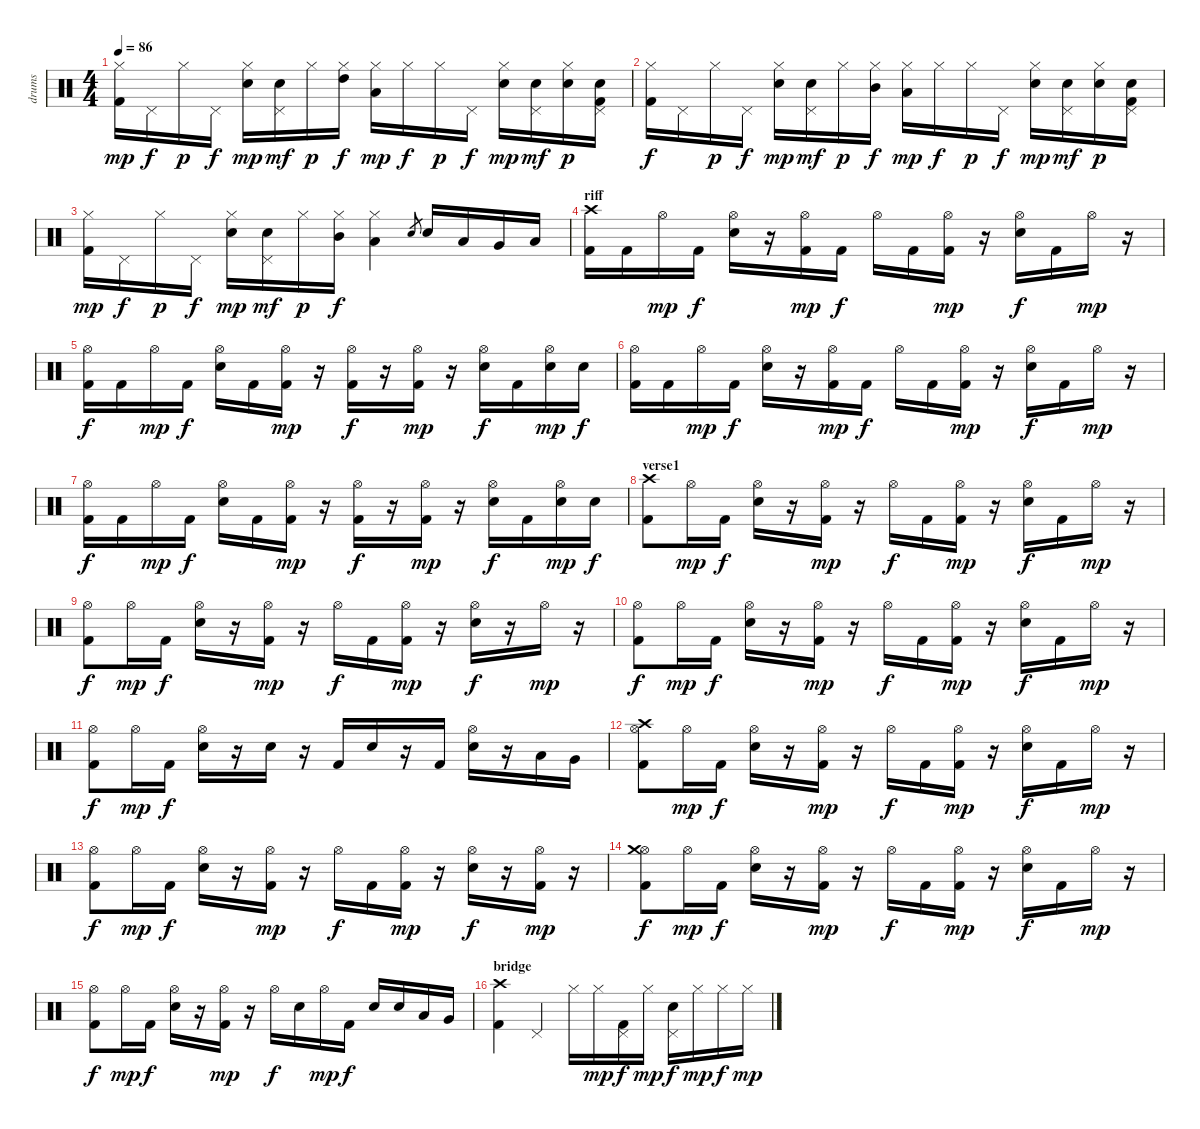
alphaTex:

\track ("drums" "drums") {instrument percussion}
\staff {score}
\articulation defaults
\ts (4 4)
\tempo 86
\clef neutral
\ks c
("Kick (hit) 2" "Hi-Hat (closed)").16{dy mp} "Pedal Hi-Hat (hit)".16{dy f} "Hi-Hat (closed)".16{dy p} "Pedal Hi-Hat (hit)".16{dy f} ("Snare (hit) 2" "Hi-Hat (closed)").16{dy mp} ("Snare (hit) 2" "Pedal Hi-Hat (hit)").16{dy mf} "Hi-Hat (closed)".16{dy p} ("High Tom (hit)" "Hi-Hat (closed)").16{dy f} ("Low Tom (hit)" "Hi-Hat (closed)").16{dy mp} "Hi-Hat (closed)".16{dy f} "Hi-Hat (closed)".16{dy p} "Pedal Hi-Hat (hit)".16{dy f} ("Snare (hit) 2" "Hi-Hat (closed)").16{dy mp} ("Snare (hit) 2" "Pedal Hi-Hat (hit)").16{dy mf} ("Snare (hit) 2" "Hi-Hat (closed)").16{dy p} ("Kick (hit) 2" "Snare (hit) 2" "Pedal Hi-Hat (hit)").16 |
("Kick (hit) 2" "Hi-Hat (closed)").16{dy f} "Pedal Hi-Hat (hit)".16 "Hi-Hat (closed)".16{dy p} "Pedal Hi-Hat (hit)".16{dy f} ("Snare (hit) 2" "Hi-Hat (closed)").16{dy mp} ("Snare (hit) 2" "Pedal Hi-Hat (hit)").16{dy mf} "Hi-Hat (closed)".16{dy p} ("Mid Tom (hit)" "Hi-Hat (closed)").16{dy f} ("Low Tom (hit)" "Hi-Hat (closed)").16{dy mp} "Hi-Hat (closed)".16{dy f} "Hi-Hat (closed)".16{dy p} "Pedal Hi-Hat (hit)".16{dy f} ("Snare (hit) 2" "Hi-Hat (closed)").16{dy mp} ("Snare (hit) 2" "Pedal Hi-Hat (hit)").16{dy mf} ("Snare (hit) 2" "Hi-Hat (closed)").16{dy p} ("Kick (hit) 2" "Snare (hit) 2" "Pedal Hi-Hat (hit)").16 |
("Kick (hit) 2" "Hi-Hat (closed)").16{dy mp} "Pedal Hi-Hat (hit)".16{dy f} "Hi-Hat (closed)".16{dy p} "Pedal Hi-Hat (hit)".16{dy f} ("Snare (hit) 2" "Hi-Hat (closed)").16{dy mp} ("Snare (hit) 2" "Pedal Hi-Hat (hit)").16{dy mf} "Hi-Hat (closed)".16{dy p} ("Mid Tom (hit)" "Hi-Hat (closed)").16{dy f} ("Low Tom (hit)" "Hi-Hat (closed)").4 "Electric Snare (hit)".8{gr} "Electric Snare (hit)".16 "Low Tom (hit)".16 "Very Low Tom (hit)".16 "Low Floor Tom (hit)".16 |
\section ("" "riff")
("Kick (hit) 2" "Crash high (hit)").16 "Kick (hit) 2".16 "Hi-Hat (open)".16{dy mp} "Kick (hit) 2".16{dy f} ("Electric Snare (hit)" "Hi-Hat (open)").16 r.16 ("Kick (hit) 2" "Hi-Hat (open)").16{dy mp} "Kick (hit) 2".16{dy f} "Hi-Hat (open)".16 "Kick (hit) 2".16 ("Kick (hit) 2" "Hi-Hat (open)").16{dy mp} r.16 ("Electric Snare (hit)" "Hi-Hat (open)").16{dy f} "Kick (hit) 2".16 "Hi-Hat (open)".16{dy mp} r.16 |
("Kick (hit) 2" "Hi-Hat (open)").16{dy f} "Kick (hit) 2".16 "Hi-Hat (open)".16{dy mp} "Kick (hit) 2".16{dy f} ("Electric Snare (hit)" "Hi-Hat (open)").16 "Kick (hit) 2".16 ("Kick (hit) 2" "Hi-Hat (open)").16{dy mp} r.16 ("Kick (hit) 2" "Hi-Hat (open)").16{dy f} r.16 ("Kick (hit) 2" "Hi-Hat (open)").16{dy mp} r.16 ("Electric Snare (hit)" "Hi-Hat (open)").16{dy f} "Kick (hit) 2".16 ("Electric Snare (hit)" "Hi-Hat (open)").16{dy mp} "Electric Snare (hit)".16{dy f} |
("Kick (hit) 2" "Hi-Hat (open)").16 "Kick (hit) 2".16 "Hi-Hat (open)".16{dy mp} "Kick (hit) 2".16{dy f} ("Electric Snare (hit)" "Hi-Hat (open)").16 r.16 ("Kick (hit) 2" "Hi-Hat (open)").16{dy mp} "Kick (hit) 2".16{dy f} "Hi-Hat (open)".16 "Kick (hit) 2".16 ("Kick (hit) 2" "Hi-Hat (open)").16{dy mp} r.16 ("Electric Snare (hit)" "Hi-Hat (open)").16{dy f} "Kick (hit) 2".16 "Hi-Hat (open)".16{dy mp} r.16 |
("Kick (hit) 2" "Hi-Hat (open)").16{dy f} "Kick (hit) 2".16 "Hi-Hat (open)".16{dy mp} "Kick (hit) 2".16{dy f} ("Electric Snare (hit)" "Hi-Hat (open)").16 "Kick (hit) 2".16 ("Kick (hit) 2" "Hi-Hat (open)").16{dy mp} r.16 ("Kick (hit) 2" "Hi-Hat (open)").16{dy f} r.16 ("Kick (hit) 2" "Hi-Hat (open)").16{dy mp} r.16 ("Electric Snare (hit)" "Hi-Hat (open)").16{dy f} "Kick (hit) 2".16 ("Electric Snare (hit)" "Hi-Hat (open)").16{dy mp} "Electric Snare (hit)".16{dy f} |
\section ("" "verse1")
("Kick (hit) 2" "Crash high (hit)").8 "Hi-Hat (open)".16{dy mp} "Kick (hit) 2".16{dy f} ("Electric Snare (hit)" "Hi-Hat (open)").16 r.16 ("Kick (hit) 2" "Hi-Hat (open)").16{dy mp} r.16 "Hi-Hat (open)".16{dy f} "Kick (hit) 2".16 ("Kick (hit) 2" "Hi-Hat (open)").16{dy mp} r.16 ("Electric Snare (hit)" "Hi-Hat (open)").16{dy f} "Kick (hit) 2".16 "Hi-Hat (open)".16{dy mp} r.16 |
("Kick (hit) 2" "Hi-Hat (open)").8{dy f} "Hi-Hat (open)".16{dy mp} "Kick (hit) 2".16{dy f} ("Electric Snare (hit)" "Hi-Hat (open)").16 r.16 ("Kick (hit) 2" "Hi-Hat (open)").16{dy mp} r.16 "Hi-Hat (open)".16{dy f} "Kick (hit) 2".16 ("Kick (hit) 2" "Hi-Hat (open)").16{dy mp} r.16 ("Electric Snare (hit)" "Hi-Hat (open)").16{dy f} r.16 "Hi-Hat (open)".16{dy mp} r.16 |
("Kick (hit) 2" "Hi-Hat (open)").8{dy f} "Hi-Hat (open)".16{dy mp} "Kick (hit) 2".16{dy f} ("Electric Snare (hit)" "Hi-Hat (open)").16 r.16 ("Kick (hit) 2" "Hi-Hat (open)").16{dy mp} r.16 "Hi-Hat (open)".16{dy f} "Kick (hit) 2".16 ("Kick (hit) 2" "Hi-Hat (open)").16{dy mp} r.16 ("Electric Snare (hit)" "Hi-Hat (open)").16{dy f} "Kick (hit) 2".16 "Hi-Hat (open)".16{dy mp} r.16 |
("Kick (hit) 2" "Hi-Hat (open)").8{dy f} "Hi-Hat (open)".16{dy mp} "Kick (hit) 2".16{dy f} ("Electric Snare (hit)" "Hi-Hat (open)").16 r.16 "Electric Snare (hit)".16 r.16 "Kick (hit) 2".16 "Electric Snare (hit)".16 r.16 "Kick (hit) 2".16 ("Electric Snare (hit)" "Hi-Hat (open)").16 r.16 "Low Tom (hit)".16 "Very Low Tom (hit)".16 |
("Kick (hit) 2" "Hi-Hat (open)" "Crash high (hit)").8 "Hi-Hat (open)".16{dy mp} "Kick (hit) 2".16{dy f} ("Electric Snare (hit)" "Hi-Hat (open)").16 r.16 ("Kick (hit) 2" "Hi-Hat (open)").16{dy mp} r.16 "Hi-Hat (open)".16{dy f} "Kick (hit) 2".16 ("Kick (hit) 2" "Hi-Hat (open)").16{dy mp} r.16 ("Electric Snare (hit)" "Hi-Hat (open)").16{dy f} "Kick (hit) 2".16 "Hi-Hat (open)".16{dy mp} r.16 |
("Kick (hit) 2" "Hi-Hat (open)").8{dy f} "Hi-Hat (open)".16{dy mp} "Kick (hit) 2".16{dy f} ("Electric Snare (hit)" "Hi-Hat (open)").16 r.16 ("Kick (hit) 2" "Hi-Hat (open)").16{dy mp} r.16 "Hi-Hat (open)".16{dy f} "Kick (hit) 2".16 ("Kick (hit) 2" "Hi-Hat (open)").16{dy mp} r.16 ("Electric Snare (hit)" "Hi-Hat (open)").16{dy f} r.16 ("Kick (hit) 2" "Hi-Hat (open)").16{dy mp} r.16 |
("Kick (hit) 2" "Hi-Hat (open)" "Crash medium (hit)").8{dy f} "Hi-Hat (open)".16{dy mp} "Kick (hit) 2".16{dy f} ("Electric Snare (hit)" "Hi-Hat (open)").16 r.16 ("Kick (hit) 2" "Hi-Hat (open)").16{dy mp} r.16 "Hi-Hat (open)".16{dy f} "Kick (hit) 2".16 ("Kick (hit) 2" "Hi-Hat (open)").16{dy mp} r.16 ("Electric Snare (hit)" "Hi-Hat (open)").16{dy f} "Kick (hit) 2".16 "Hi-Hat (open)".16{dy mp} r.16 |
("Kick (hit) 2" "Hi-Hat (open)").8{dy f} "Hi-Hat (open)".16{dy mp} "Kick (hit) 2".16{dy f} ("Electric Snare (hit)" "Hi-Hat (open)").16 r.16 ("Kick (hit) 2" "Hi-Hat (open)").16{dy mp} r.16 "Hi-Hat (open)".16{dy f} "Electric Snare (hit)".16 "Hi-Hat (open)".16{dy mp} "Kick (hit) 2".16{dy f} "Electric Snare (hit)".16 "Electric Snare (hit)".16 "Low Tom (hit)".16 "Very Low Tom (hit)".16 |
\section ("" "bridge")
("Kick (hit) 2" "Crash high (hit)").4 "Pedal Hi-Hat (hit)".4 "Hi-Hat (closed)".16 "Hi-Hat (closed)".16{dy mp} ("Kick (hit) 2" "Pedal Hi-Hat (hit)").16{dy f} "Hi-Hat (closed)".16{dy mp} ("Snare (hit) 2" "Pedal Hi-Hat (hit)").16{dy f} "Hi-Hat (closed)".16{dy mp} "Hi-Hat (closed)".16{dy f} "Hi-Hat (closed)".16{dy mp}
